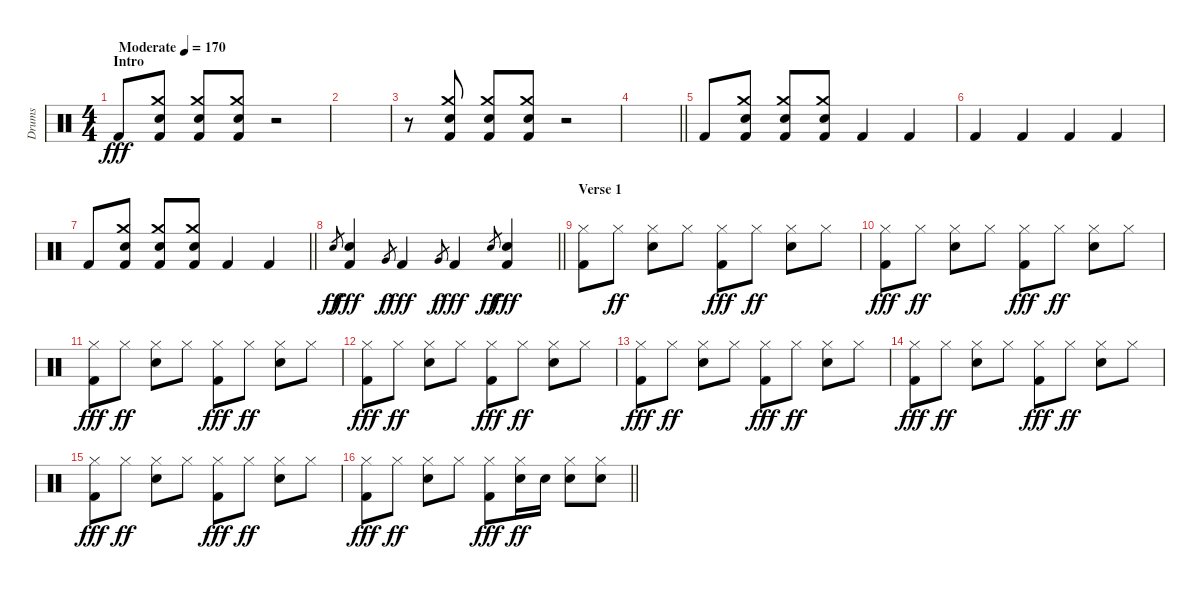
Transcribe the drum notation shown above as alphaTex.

\track ("Drums" "Drums") {instrument percussion}
\staff {score}
\articulation defaults
\ts (4 4)
\section ("" "Intro")
\tempo (170 "Moderate")
\clef neutral
\ks c "Kick (hit) 2".8{dy fff}
("Crash medium (hit)" "Snare (hit) 2" "Kick (hit) 2").8 ("Crash medium (hit)" "Snare (hit) 2" "Kick (hit) 2").8 ("Crash medium (hit)" "Snare (hit) 2" "Kick (hit) 2").8 r.2 |
|
r.8 ("Crash medium (hit)" "Snare (hit) 2" "Kick (hit) 2").8 ("Crash medium (hit)" "Snare (hit) 2" "Kick (hit) 2").8 ("Crash medium (hit)" "Snare (hit) 2" "Kick (hit) 2").8 r.2 |
\barLineRight lightlight
|
"Kick (hit) 2".8 ("Crash medium (hit)" "Snare (hit) 2" "Kick (hit) 2").8 ("Crash medium (hit)" "Snare (hit) 2" "Kick (hit) 2").8 ("Crash medium (hit)" "Snare (hit) 2" "Kick (hit) 2").8 "Kick (hit) 2".4 "Kick (hit) 2".4 |
"Kick (hit) 2".4 "Kick (hit) 2".4 "Kick (hit) 2".4 "Kick (hit) 2".4 |
\barLineRight lightlight "Kick (hit) 2".8
("Crash medium (hit)" "Snare (hit) 2" "Kick (hit) 2").8 ("Crash medium (hit)" "Snare (hit) 2" "Kick (hit) 2").8 ("Crash medium (hit)" "Snare (hit) 2" "Kick (hit) 2").8 "Kick (hit) 2".4 "Kick (hit) 2".4 |
\barLineRight lightlight "Snare (hit) 2".8{gr dy ff}
("Snare (hit) 2" "Kick (hit) 2").4{dy fff} "Very Low Tom (hit)".8{gr dy f} "Kick (hit) 2".4{dy fff} "Very Low Tom (hit)".8{gr dy f} "Kick (hit) 2".4{dy fff} "Snare (hit) 2".8{gr dy ff} ("Snare (hit) 2" "Kick (hit) 2").4{dy fff} |
\section ("" "Verse 1")
("Hi-Hat (closed)" "Kick (hit) 2").8 "Hi-Hat (closed)".8{dy ff} ("Hi-Hat (closed)" "Snare (hit) 2").8 "Hi-Hat (closed)".8 ("Hi-Hat (closed)" "Kick (hit) 2").8{dy fff} "Hi-Hat (closed)".8{dy ff} ("Hi-Hat (closed)" "Snare (hit) 2").8 "Hi-Hat (closed)".8 |
("Hi-Hat (closed)" "Kick (hit) 2").8{dy fff} "Hi-Hat (closed)".8{dy ff} ("Hi-Hat (closed)" "Snare (hit) 2").8 "Hi-Hat (closed)".8 ("Hi-Hat (closed)" "Kick (hit) 2").8{dy fff} "Hi-Hat (closed)".8{dy ff} ("Hi-Hat (closed)" "Snare (hit) 2").8 "Hi-Hat (closed)".8 |
("Hi-Hat (closed)" "Kick (hit) 2").8{dy fff} "Hi-Hat (closed)".8{dy ff} ("Hi-Hat (closed)" "Snare (hit) 2").8 "Hi-Hat (closed)".8 ("Hi-Hat (closed)" "Kick (hit) 2").8{dy fff} "Hi-Hat (closed)".8{dy ff} ("Hi-Hat (closed)" "Snare (hit) 2").8 "Hi-Hat (closed)".8 |
("Hi-Hat (closed)" "Kick (hit) 2").8{dy fff} "Hi-Hat (closed)".8{dy ff} ("Hi-Hat (closed)" "Snare (hit) 2").8 "Hi-Hat (closed)".8 ("Hi-Hat (closed)" "Kick (hit) 2").8{dy fff} "Hi-Hat (closed)".8{dy ff} ("Hi-Hat (closed)" "Snare (hit) 2").8 "Hi-Hat (closed)".8 |
("Hi-Hat (closed)" "Kick (hit) 2").8{dy fff} "Hi-Hat (closed)".8{dy ff} ("Hi-Hat (closed)" "Snare (hit) 2").8 "Hi-Hat (closed)".8 ("Hi-Hat (closed)" "Kick (hit) 2").8{dy fff} "Hi-Hat (closed)".8{dy ff} ("Hi-Hat (closed)" "Snare (hit) 2").8 "Hi-Hat (closed)".8 |
("Hi-Hat (closed)" "Kick (hit) 2").8{dy fff} "Hi-Hat (closed)".8{dy ff} ("Hi-Hat (closed)" "Snare (hit) 2").8 "Hi-Hat (closed)".8 ("Hi-Hat (closed)" "Kick (hit) 2").8{dy fff} "Hi-Hat (closed)".8{dy ff} ("Hi-Hat (closed)" "Snare (hit) 2").8 "Hi-Hat (closed)".8 |
("Hi-Hat (closed)" "Kick (hit) 2").8{dy fff} "Hi-Hat (closed)".8{dy ff} ("Hi-Hat (closed)" "Snare (hit) 2").8 "Hi-Hat (closed)".8 ("Hi-Hat (closed)" "Kick (hit) 2").8{dy fff} "Hi-Hat (closed)".8{dy ff} ("Hi-Hat (closed)" "Snare (hit) 2").8 "Hi-Hat (closed)".8 |
\barLineRight lightlight
("Hi-Hat (closed)" "Kick (hit) 2").8{dy fff} "Hi-Hat (closed)".8{dy ff} ("Hi-Hat (closed)" "Snare (hit) 2").8 "Hi-Hat (closed)".8 ("Hi-Hat (closed)" "Kick (hit) 2").8{dy fff} ("Hi-Hat (closed)" "Snare (hit) 2").16{dy ff} "Snare (hit) 2".16 ("Hi-Hat (closed)" "Snare (hit) 2").8 ("Hi-Hat (closed)" "Snare (hit) 2").8
